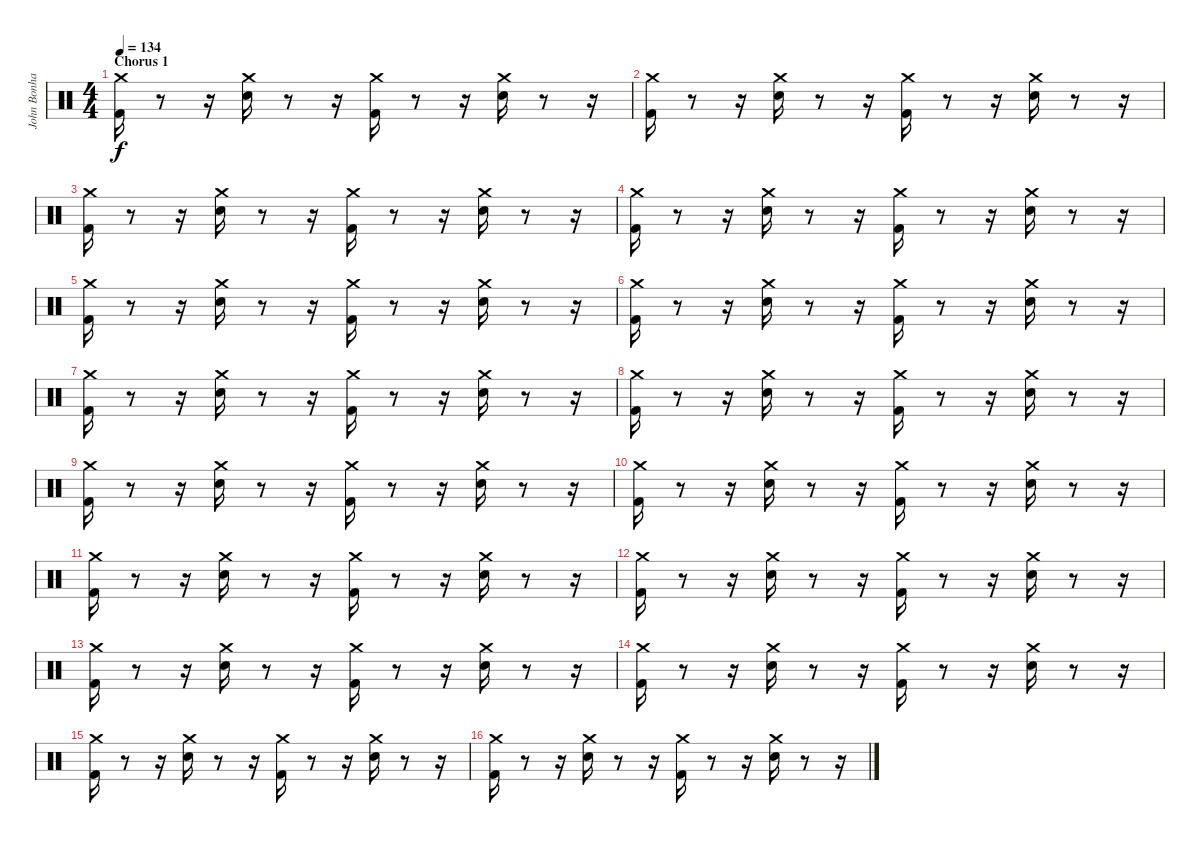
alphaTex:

\track ("John Bonham" "John Bonha") {instrument percussion}
\staff {score}
\articulation defaults
\ts (4 4)
\section ("" "Chorus 1")
\tempo 134
\clef neutral
\ks aminor
("Kick (hit) 2" "Crash medium (hit)").16{dy f} r.8 r.16 ("Electric Snare (hit)" "Crash medium (hit)").16 r.8 r.16 ("Kick (hit) 2" "Crash medium (hit)").16 r.8 r.16 ("Electric Snare (hit)" "Crash medium (hit)").16 r.8 r.16 |
("Kick (hit) 2" "Crash medium (hit)").16 r.8 r.16 ("Electric Snare (hit)" "Crash medium (hit)").16 r.8 r.16 ("Kick (hit) 2" "Crash medium (hit)").16 r.8 r.16 ("Electric Snare (hit)" "Crash medium (hit)").16 r.8 r.16 |
("Kick (hit) 2" "Crash medium (hit)").16 r.8 r.16 ("Electric Snare (hit)" "Crash medium (hit)").16 r.8 r.16 ("Kick (hit) 2" "Crash medium (hit)").16 r.8 r.16 ("Electric Snare (hit)" "Crash medium (hit)").16 r.8 r.16 |
("Kick (hit) 2" "Crash medium (hit)").16 r.8 r.16 ("Electric Snare (hit)" "Crash medium (hit)").16 r.8 r.16 ("Kick (hit) 2" "Crash medium (hit)").16 r.8 r.16 ("Electric Snare (hit)" "Crash medium (hit)").16 r.8 r.16 |
("Kick (hit) 2" "Crash medium (hit)").16 r.8 r.16 ("Electric Snare (hit)" "Crash medium (hit)").16 r.8 r.16 ("Kick (hit) 2" "Crash medium (hit)").16 r.8 r.16 ("Electric Snare (hit)" "Crash medium (hit)").16 r.8 r.16 |
("Kick (hit) 2" "Crash medium (hit)").16 r.8 r.16 ("Electric Snare (hit)" "Crash medium (hit)").16 r.8 r.16 ("Kick (hit) 2" "Crash medium (hit)").16 r.8 r.16 ("Electric Snare (hit)" "Crash medium (hit)").16 r.8 r.16 |
("Kick (hit) 2" "Crash medium (hit)").16 r.8 r.16 ("Electric Snare (hit)" "Crash medium (hit)").16 r.8 r.16 ("Kick (hit) 2" "Crash medium (hit)").16 r.8 r.16 ("Electric Snare (hit)" "Crash medium (hit)").16 r.8 r.16 |
("Kick (hit) 2" "Crash medium (hit)").16 r.8 r.16 ("Electric Snare (hit)" "Crash medium (hit)").16 r.8 r.16 ("Kick (hit) 2" "Crash medium (hit)").16 r.8 r.16 ("Electric Snare (hit)" "Crash medium (hit)").16 r.8 r.16 |
("Kick (hit) 2" "Crash medium (hit)").16 r.8 r.16 ("Electric Snare (hit)" "Crash medium (hit)").16 r.8 r.16 ("Kick (hit) 2" "Crash medium (hit)").16 r.8 r.16 ("Electric Snare (hit)" "Crash medium (hit)").16 r.8 r.16 |
("Kick (hit) 2" "Crash medium (hit)").16 r.8 r.16 ("Electric Snare (hit)" "Crash medium (hit)").16 r.8 r.16 ("Kick (hit) 2" "Crash medium (hit)").16 r.8 r.16 ("Electric Snare (hit)" "Crash medium (hit)").16 r.8 r.16 |
("Kick (hit) 2" "Crash medium (hit)").16 r.8 r.16 ("Electric Snare (hit)" "Crash medium (hit)").16 r.8 r.16 ("Kick (hit) 2" "Crash medium (hit)").16 r.8 r.16 ("Electric Snare (hit)" "Crash medium (hit)").16 r.8 r.16 |
("Kick (hit) 2" "Crash medium (hit)").16 r.8 r.16 ("Electric Snare (hit)" "Crash medium (hit)").16 r.8 r.16 ("Kick (hit) 2" "Crash medium (hit)").16 r.8 r.16 ("Electric Snare (hit)" "Crash medium (hit)").16 r.8 r.16 |
("Kick (hit) 2" "Crash medium (hit)").16 r.8 r.16 ("Electric Snare (hit)" "Crash medium (hit)").16 r.8 r.16 ("Kick (hit) 2" "Crash medium (hit)").16 r.8 r.16 ("Electric Snare (hit)" "Crash medium (hit)").16 r.8 r.16 |
("Kick (hit) 2" "Crash medium (hit)").16 r.8 r.16 ("Electric Snare (hit)" "Crash medium (hit)").16 r.8 r.16 ("Kick (hit) 2" "Crash medium (hit)").16 r.8 r.16 ("Electric Snare (hit)" "Crash medium (hit)").16 r.8 r.16 |
("Kick (hit) 2" "Crash medium (hit)").16 r.8 r.16 ("Electric Snare (hit)" "Crash medium (hit)").16 r.8 r.16 ("Kick (hit) 2" "Crash medium (hit)").16 r.8 r.16 ("Electric Snare (hit)" "Crash medium (hit)").16 r.8 r.16 |
("Kick (hit) 2" "Crash medium (hit)").16 r.8 r.16 ("Electric Snare (hit)" "Crash medium (hit)").16 r.8 r.16 ("Kick (hit) 2" "Crash medium (hit)").16 r.8 r.16 ("Electric Snare (hit)" "Crash medium (hit)").16 r.8 r.16
